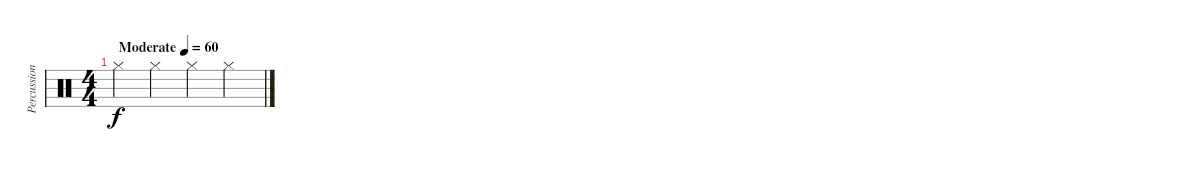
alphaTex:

\track ("Percussion" "Percussion") {instrument percussion}
\staff {score}
\articulation defaults
\ts (4 4)
\tempo (60 "Moderate")
\clef neutral
\ks c "Hi-Hat (closed)".4{dy f} "Hi-Hat (closed)".4 "Hi-Hat (closed)".4 "Hi-Hat (closed)".4
